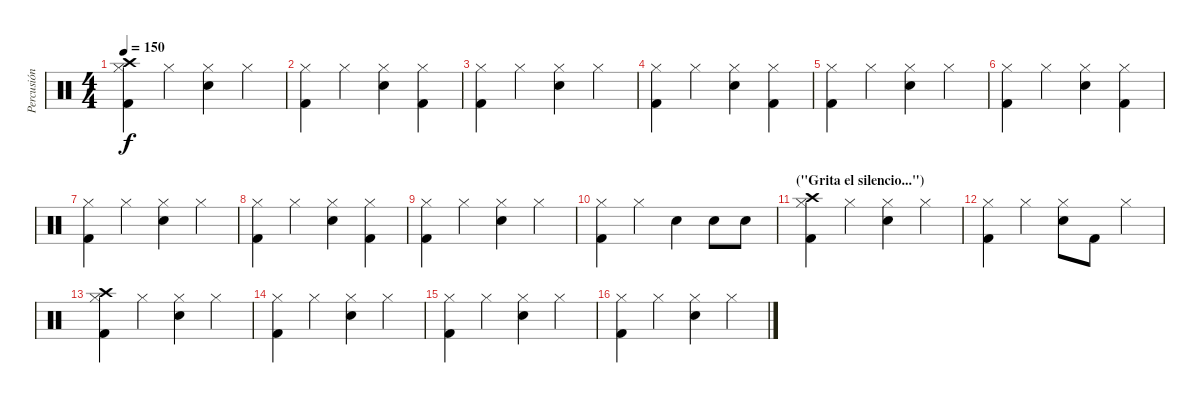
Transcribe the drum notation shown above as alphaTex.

\track ("Percusión" "Percusión") {instrument percussion}
\staff {score}
\articulation defaults
\ts (4 4)
\tempo 150
\clef neutral
\ks c
("Crash high (hit)" "Hi-Hat (closed)" "Kick (hit) 2").4{dy f} "Hi-Hat (closed)".4 ("Hi-Hat (closed)" "Snare (hit) 2").4 "Hi-Hat (closed)".4 |
("Hi-Hat (closed)" "Kick (hit) 2").4 "Hi-Hat (closed)".4 ("Hi-Hat (closed)" "Snare (hit) 2").4 ("Hi-Hat (closed)" "Kick (hit) 2").4 |
("Hi-Hat (closed)" "Kick (hit) 2").4 "Hi-Hat (closed)".4 ("Hi-Hat (closed)" "Snare (hit) 2").4 "Hi-Hat (closed)".4 |
("Hi-Hat (closed)" "Kick (hit) 2").4 "Hi-Hat (closed)".4 ("Hi-Hat (closed)" "Snare (hit) 2").4 ("Hi-Hat (closed)" "Kick (hit) 2").4 |
("Hi-Hat (closed)" "Kick (hit) 2").4 "Hi-Hat (closed)".4 ("Hi-Hat (closed)" "Snare (hit) 2").4 "Hi-Hat (closed)".4 |
("Hi-Hat (closed)" "Kick (hit) 2").4 "Hi-Hat (closed)".4 ("Hi-Hat (closed)" "Snare (hit) 2").4 ("Hi-Hat (closed)" "Kick (hit) 2").4 |
("Hi-Hat (closed)" "Kick (hit) 2").4 "Hi-Hat (closed)".4 ("Hi-Hat (closed)" "Snare (hit) 2").4 "Hi-Hat (closed)".4 |
("Hi-Hat (closed)" "Kick (hit) 2").4 "Hi-Hat (closed)".4 ("Hi-Hat (closed)" "Snare (hit) 2").4 ("Hi-Hat (closed)" "Kick (hit) 2").4 |
("Hi-Hat (closed)" "Kick (hit) 2").4 "Hi-Hat (closed)".4 ("Hi-Hat (closed)" "Snare (hit) 2").4 "Hi-Hat (closed)".4 |
("Hi-Hat (closed)" "Kick (hit) 2").4 "Hi-Hat (closed)".4 "Snare (hit) 2".4 "Snare (hit) 2".8 "Snare (hit) 2".8 |
\section ("" "(\"Grita el silencio...\")")
("Crash high (hit)" "Hi-Hat (closed)" "Kick (hit) 2").4 "Hi-Hat (closed)".4 ("Hi-Hat (closed)" "Snare (hit) 2").4 "Hi-Hat (closed)".4 |
("Hi-Hat (closed)" "Kick (hit) 2").4 "Hi-Hat (closed)".4 ("Hi-Hat (closed)" "Snare (hit) 2").8 "Kick (hit) 2".8 "Hi-Hat (closed)".4 |
("Crash high (hit)" "Hi-Hat (closed)" "Kick (hit) 2").4 "Hi-Hat (closed)".4 ("Hi-Hat (closed)" "Snare (hit) 2").4 "Hi-Hat (closed)".4 |
("Hi-Hat (closed)" "Kick (hit) 2").4 "Hi-Hat (closed)".4 ("Hi-Hat (closed)" "Snare (hit) 2").4 "Hi-Hat (closed)".4 |
("Hi-Hat (closed)" "Kick (hit) 2").4 "Hi-Hat (closed)".4 ("Hi-Hat (closed)" "Snare (hit) 2").4 "Hi-Hat (closed)".4 |
("Hi-Hat (closed)" "Kick (hit) 2").4 "Hi-Hat (closed)".4 ("Hi-Hat (closed)" "Snare (hit) 2").4 "Hi-Hat (closed)".4
